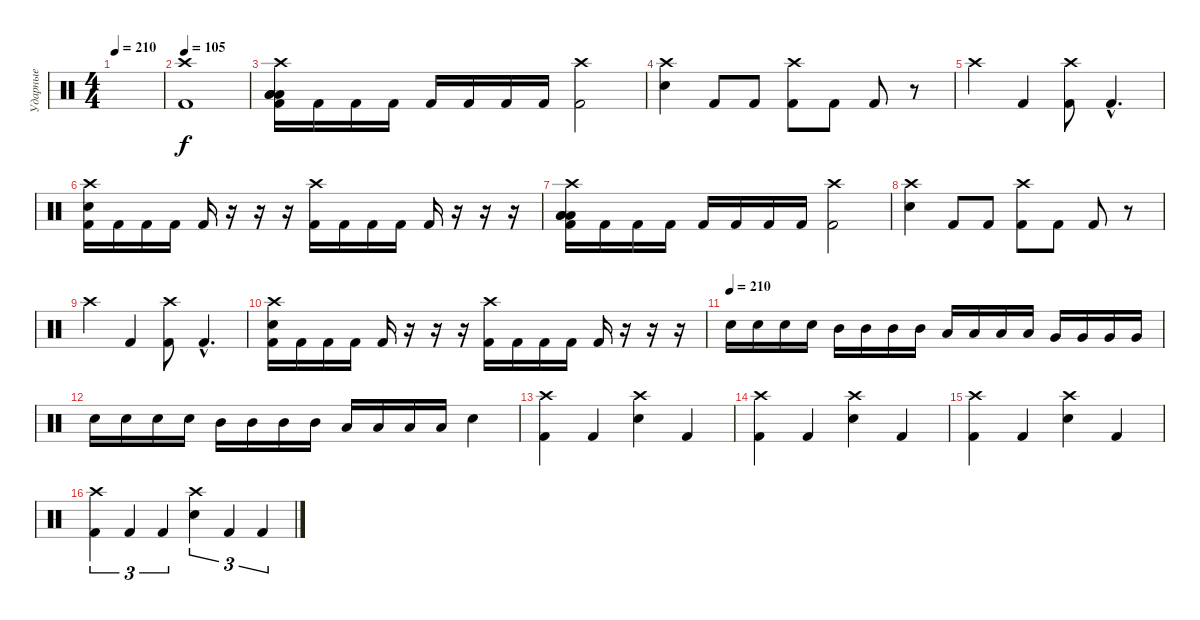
\track ("Ударные" "Ударные") {instrument percussion}
\staff {score}
\articulation defaults
\ts (4 4)
\tempo 210
\clef neutral
\ks c
|
\tempo 105
("Crash high (hit)" "Kick (hit) 2").1 |
("Crash high (hit)" "Low Floor Tom (hit)" "Low Floor Tom (hit)" "Low Floor Tom (hit)" "Kick (hit) 2").16 "Kick (hit) 2".16 "Kick (hit) 2".16 "Kick (hit) 2".16 "Kick (hit) 2".16 "Kick (hit) 2".16 "Kick (hit) 2".16 "Kick (hit) 2".16 ("Crash high (hit)" "Kick (hit) 2").2 |
("Crash high (hit)" "Electric Snare (hit)").4 "Kick (hit) 2".8 "Kick (hit) 2".8 ("Crash high (hit)" "Kick (hit) 2").8 "Kick (hit) 2".8 "Kick (hit) 2".8 r.8 |
"Crash high (hit)".4 "Kick (hit) 2".4 ("Crash high (hit)" "Kick (hit) 2").8 "Kick (hit) 2"{hac}.4{d} |
("Crash high (hit)" "Electric Snare (hit)" "Kick (hit) 2").16 "Kick (hit) 2".16 "Kick (hit) 2".16 "Kick (hit) 2".16 "Kick (hit) 2".16 r.16 r.16 r.16 ("Crash high (hit)" "Kick (hit) 2").16 "Kick (hit) 2".16 "Kick (hit) 2".16 "Kick (hit) 2".16 "Kick (hit) 2".16 r.16 r.16 r.16 |
("Crash high (hit)" "Low Floor Tom (hit)" "Low Floor Tom (hit)" "Low Floor Tom (hit)" "Kick (hit) 2").16 "Kick (hit) 2".16 "Kick (hit) 2".16 "Kick (hit) 2".16 "Kick (hit) 2".16 "Kick (hit) 2".16 "Kick (hit) 2".16 "Kick (hit) 2".16 ("Crash high (hit)" "Kick (hit) 2").2 |
("Crash high (hit)" "Electric Snare (hit)").4 "Kick (hit) 2".8 "Kick (hit) 2".8 ("Crash high (hit)" "Kick (hit) 2").8 "Kick (hit) 2".8 "Kick (hit) 2".8 r.8 |
"Crash high (hit)".4 "Kick (hit) 2".4 ("Crash high (hit)" "Kick (hit) 2").8 "Kick (hit) 2"{hac}.4{d} |
("Crash high (hit)" "Electric Snare (hit)" "Kick (hit) 2").16 "Kick (hit) 2".16 "Kick (hit) 2".16 "Kick (hit) 2".16 "Kick (hit) 2".16 r.16 r.16 r.16 ("Crash high (hit)" "Kick (hit) 2").16 "Kick (hit) 2".16 "Kick (hit) 2".16 "Kick (hit) 2".16 "Kick (hit) 2".16 r.16 r.16 r.16 |
\tempo (210)
"Electric Snare (hit)".16 "Electric Snare (hit)".16 "Electric Snare (hit)".16 "Electric Snare (hit)".16 "Mid Tom (hit)".16 "Mid Tom (hit)".16 "Mid Tom (hit)".16 "Mid Tom (hit)".16 "Low Tom (hit)".16 "Low Tom (hit)".16 "Low Tom (hit)".16 "Low Tom (hit)".16 "Very Low Tom (hit)".16 "Very Low Tom (hit)".16 "Very Low Tom (hit)".16 "Very Low Tom (hit)".16 |
"Electric Snare (hit)".16 "Electric Snare (hit)".16 "Electric Snare (hit)".16 "Electric Snare (hit)".16 "Mid Tom (hit)".16 "Mid Tom (hit)".16 "Mid Tom (hit)".16 "Mid Tom (hit)".16 "Low Tom (hit)".16 "Low Tom (hit)".16 "Low Tom (hit)".16 "Low Tom (hit)".16 "Electric Snare (hit)".4 |
("Crash high (hit)" "Kick (hit) 2").4 "Kick (hit) 2".4 ("Crash high (hit)" "Electric Snare (hit)").4 "Kick (hit) 2".4 |
("Crash high (hit)" "Kick (hit) 2").4 "Kick (hit) 2".4 ("Crash high (hit)" "Electric Snare (hit)").4 "Kick (hit) 2".4 |
("Crash high (hit)" "Kick (hit) 2").4 "Kick (hit) 2".4 ("Crash high (hit)" "Electric Snare (hit)").4 "Kick (hit) 2".4 |
("Crash high (hit)" "Kick (hit) 2").4{tu (3 2)} "Kick (hit) 2".4{tu (3 2)} "Kick (hit) 2".4{tu (3 2)} ("Crash high (hit)" "Electric Snare (hit)").4{tu (3 2)} "Kick (hit) 2".4{tu (3 2)} "Kick (hit) 2".4{tu (3 2)}
